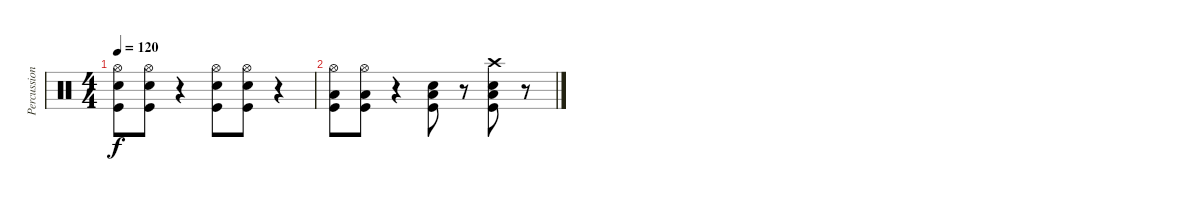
\track ("Percussions" "Percussion") {instrument percussion}
\staff {score}
\articulation defaults
\ts (4 4)
\tempo 120
\clef neutral
\ks c
("Hi-Hat (open)" "Electric Snare (hit)" "Kick (hit)").8{dy f} ("Hi-Hat (open)" "Electric Snare (hit)" "Kick (hit)").8 r.4 ("Hi-Hat (open)" "Electric Snare (hit)" "Kick (hit)").8 ("Hi-Hat (open)" "Electric Snare (hit)" "Kick (hit)").8 r.4 |
("Hi-Hat (open)" "Low Floor Tom (hit)" "Kick (hit)").8 ("Hi-Hat (open)" "Low Floor Tom (hit)" "Kick (hit)").8 r.4 ("Electric Snare (hit)" "Low Floor Tom (hit)" "Kick (hit)").8 r.8 ("Crash high (hit)" "Electric Snare (hit)" "Low Floor Tom (hit)" "Kick (hit)").8 r.8
